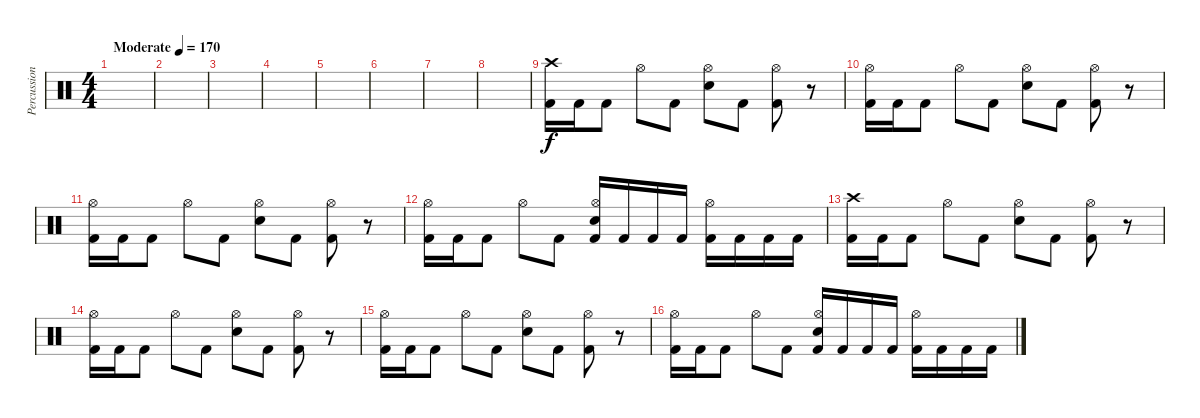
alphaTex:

\track ("Percussion" "Percussion") {instrument percussion}
\staff {score}
\articulation defaults
\ts (4 4)
\tempo (170 "Moderate")
\clef neutral
\ks c
|
|
|
|
|
|
|
|
("Crash high (hit)" "Kick (hit) 2").16 "Kick (hit) 2".16 "Kick (hit) 2".8 "Hi-Hat (open)".8 "Kick (hit) 2".8 ("Hi-Hat (open)" "Snare (hit) 2").8 "Kick (hit) 2".8 ("Hi-Hat (open)" "Kick (hit) 2").8 r.8 |
("Hi-Hat (open)" "Kick (hit) 2").16 "Kick (hit) 2".16 "Kick (hit) 2".8 "Hi-Hat (open)".8 "Kick (hit) 2".8 ("Hi-Hat (open)" "Snare (hit) 2").8 "Kick (hit) 2".8 ("Hi-Hat (open)" "Kick (hit) 2").8 r.8 |
("Hi-Hat (open)" "Kick (hit) 2").16 "Kick (hit) 2".16 "Kick (hit) 2".8 "Hi-Hat (open)".8 "Kick (hit) 2".8 ("Hi-Hat (open)" "Snare (hit) 2").8 "Kick (hit) 2".8 ("Hi-Hat (open)" "Kick (hit) 2").8 r.8 |
("Hi-Hat (open)" "Kick (hit) 2").16 "Kick (hit) 2".16 "Kick (hit) 2".8 "Hi-Hat (open)".8 "Kick (hit) 2".8 ("Hi-Hat (open)" "Snare (hit) 2" "Kick (hit) 2").16 "Kick (hit) 2".16 "Kick (hit) 2".16 "Kick (hit) 2".16 ("Hi-Hat (open)" "Kick (hit) 2").16 "Kick (hit) 2".16 "Kick (hit) 2".16 "Kick (hit) 2".16 |
("Crash high (hit)" "Kick (hit) 2").16 "Kick (hit) 2".16 "Kick (hit) 2".8 "Hi-Hat (open)".8 "Kick (hit) 2".8 ("Hi-Hat (open)" "Snare (hit) 2").8 "Kick (hit) 2".8 ("Hi-Hat (open)" "Kick (hit) 2").8 r.8 |
("Hi-Hat (open)" "Kick (hit) 2").16 "Kick (hit) 2".16 "Kick (hit) 2".8 "Hi-Hat (open)".8 "Kick (hit) 2".8 ("Hi-Hat (open)" "Snare (hit) 2").8 "Kick (hit) 2".8 ("Hi-Hat (open)" "Kick (hit) 2").8 r.8 |
("Hi-Hat (open)" "Kick (hit) 2").16 "Kick (hit) 2".16 "Kick (hit) 2".8 "Hi-Hat (open)".8 "Kick (hit) 2".8 ("Hi-Hat (open)" "Snare (hit) 2").8 "Kick (hit) 2".8 ("Hi-Hat (open)" "Kick (hit) 2").8 r.8 |
("Hi-Hat (open)" "Kick (hit) 2").16 "Kick (hit) 2".16 "Kick (hit) 2".8 "Hi-Hat (open)".8 "Kick (hit) 2".8 ("Hi-Hat (open)" "Snare (hit) 2" "Kick (hit) 2").16 "Kick (hit) 2".16 "Kick (hit) 2".16 "Kick (hit) 2".16 ("Hi-Hat (open)" "Kick (hit) 2").16 "Kick (hit) 2".16 "Kick (hit) 2".16 "Kick (hit) 2".16
